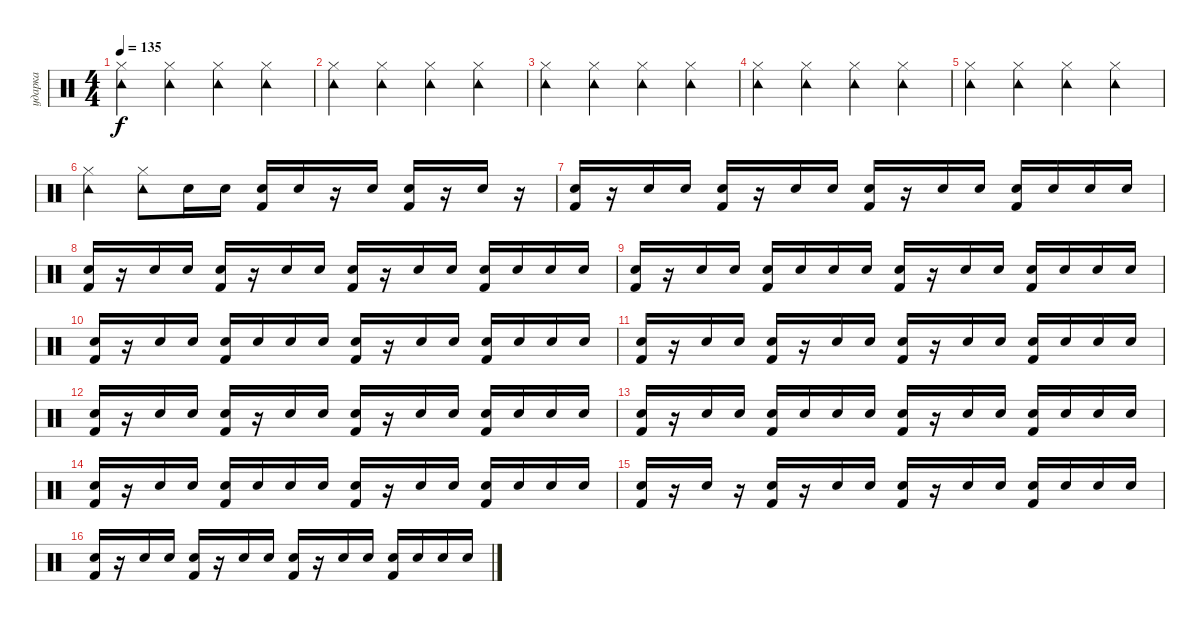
\track ("ударка" "ударка") {instrument percussion}
\staff {score}
\articulation defaults
\ts (4 4)
\tempo 135
\clef neutral
\ks c
("Hi-Hat (closed)" "Tambourine (hit)").4{dy f} ("Hi-Hat (closed)" "Tambourine (hit)").4 ("Hi-Hat (closed)" "Tambourine (hit)").4 ("Hi-Hat (closed)" "Tambourine (hit)").4 |
("Hi-Hat (closed)" "Tambourine (hit)").4 ("Hi-Hat (closed)" "Tambourine (hit)").4 ("Hi-Hat (closed)" "Tambourine (hit)").4 ("Hi-Hat (closed)" "Tambourine (hit)").4 |
("Hi-Hat (closed)" "Tambourine (hit)").4 ("Hi-Hat (closed)" "Tambourine (hit)").4 ("Hi-Hat (closed)" "Tambourine (hit)").4 ("Hi-Hat (closed)" "Tambourine (hit)").4 |
("Hi-Hat (closed)" "Tambourine (hit)").4 ("Hi-Hat (closed)" "Tambourine (hit)").4 ("Hi-Hat (closed)" "Tambourine (hit)").4 ("Hi-Hat (closed)" "Tambourine (hit)").4 |
("Hi-Hat (closed)" "Tambourine (hit)").4 ("Hi-Hat (closed)" "Tambourine (hit)").4 ("Hi-Hat (closed)" "Tambourine (hit)").4 ("Hi-Hat (closed)" "Tambourine (hit)").4 |
("Hi-Hat (closed)" "Tambourine (hit)").4 ("Hi-Hat (closed)" "Tambourine (hit)").8 "Snare (hit) 2".16 "Snare (hit) 2".16 ("Snare (hit) 2" "Kick (hit) 2").16 "Snare (hit) 2".16 r.16 "Snare (hit) 2".16 ("Snare (hit) 2" "Kick (hit) 2").16 r.16 "Snare (hit) 2".16 r.16 |
("Snare (hit) 2" "Kick (hit) 2").16 r.16 "Snare (hit) 2".16 "Snare (hit) 2".16 ("Snare (hit) 2" "Kick (hit) 2").16 r.16 "Snare (hit) 2".16 "Snare (hit) 2".16 ("Snare (hit) 2" "Kick (hit) 2").16 r.16 "Snare (hit) 2".16 "Snare (hit) 2".16 ("Snare (hit) 2" "Kick (hit) 2").16 "Snare (hit) 2".16 "Snare (hit) 2".16 "Snare (hit) 2".16 |
("Snare (hit) 2" "Kick (hit) 2").16 r.16 "Snare (hit) 2".16 "Snare (hit) 2".16 ("Snare (hit) 2" "Kick (hit) 2").16 r.16 "Snare (hit) 2".16 "Snare (hit) 2".16 ("Snare (hit) 2" "Kick (hit) 2").16 r.16 "Snare (hit) 2".16 "Snare (hit) 2".16 ("Snare (hit) 2" "Kick (hit) 2").16 "Snare (hit) 2".16 "Snare (hit) 2".16 "Snare (hit) 2".16 |
("Snare (hit) 2" "Kick (hit) 2").16 r.16 "Snare (hit) 2".16 "Snare (hit) 2".16 ("Snare (hit) 2" "Kick (hit) 2").16 "Snare (hit) 2".16 "Snare (hit) 2".16 "Snare (hit) 2".16 ("Snare (hit) 2" "Kick (hit) 2").16 r.16 "Snare (hit) 2".16 "Snare (hit) 2".16 ("Snare (hit) 2" "Kick (hit) 2").16 "Snare (hit) 2".16 "Snare (hit) 2".16 "Snare (hit) 2".16 |
("Snare (hit) 2" "Kick (hit) 2").16 r.16 "Snare (hit) 2".16 "Snare (hit) 2".16 ("Snare (hit) 2" "Kick (hit) 2").16 "Snare (hit) 2".16 "Snare (hit) 2".16 "Snare (hit) 2".16 ("Snare (hit) 2" "Kick (hit) 2").16 r.16 "Snare (hit) 2".16 "Snare (hit) 2".16 ("Snare (hit) 2" "Kick (hit) 2").16 "Snare (hit) 2".16 "Snare (hit) 2".16 "Snare (hit) 2".16 |
("Snare (hit) 2" "Kick (hit) 2").16 r.16 "Snare (hit) 2".16 "Snare (hit) 2".16 ("Snare (hit) 2" "Kick (hit) 2").16 r.16 "Snare (hit) 2".16 "Snare (hit) 2".16 ("Snare (hit) 2" "Kick (hit) 2").16 r.16 "Snare (hit) 2".16 "Snare (hit) 2".16 ("Snare (hit) 2" "Kick (hit) 2").16 "Snare (hit) 2".16 "Snare (hit) 2".16 "Snare (hit) 2".16 |
("Snare (hit) 2" "Kick (hit) 2").16 r.16 "Snare (hit) 2".16 "Snare (hit) 2".16 ("Snare (hit) 2" "Kick (hit) 2").16 r.16 "Snare (hit) 2".16 "Snare (hit) 2".16 ("Snare (hit) 2" "Kick (hit) 2").16 r.16 "Snare (hit) 2".16 "Snare (hit) 2".16 ("Snare (hit) 2" "Kick (hit) 2").16 "Snare (hit) 2".16 "Snare (hit) 2".16 "Snare (hit) 2".16 |
("Snare (hit) 2" "Kick (hit) 2").16 r.16 "Snare (hit) 2".16 "Snare (hit) 2".16 ("Snare (hit) 2" "Kick (hit) 2").16 "Snare (hit) 2".16 "Snare (hit) 2".16 "Snare (hit) 2".16 ("Snare (hit) 2" "Kick (hit) 2").16 r.16 "Snare (hit) 2".16 "Snare (hit) 2".16 ("Snare (hit) 2" "Kick (hit) 2").16 "Snare (hit) 2".16 "Snare (hit) 2".16 "Snare (hit) 2".16 |
("Snare (hit) 2" "Kick (hit) 2").16 r.16 "Snare (hit) 2".16 "Snare (hit) 2".16 ("Snare (hit) 2" "Kick (hit) 2").16 "Snare (hit) 2".16 "Snare (hit) 2".16 "Snare (hit) 2".16 ("Snare (hit) 2" "Kick (hit) 2").16 r.16 "Snare (hit) 2".16 "Snare (hit) 2".16 ("Snare (hit) 2" "Kick (hit) 2").16 "Snare (hit) 2".16 "Snare (hit) 2".16 "Snare (hit) 2".16 |
("Snare (hit) 2" "Kick (hit) 2").16 r.16 "Snare (hit) 2".16 r.16 ("Snare (hit) 2" "Kick (hit) 2").16 r.16 "Snare (hit) 2".16 "Snare (hit) 2".16 ("Snare (hit) 2" "Kick (hit) 2").16 r.16 "Snare (hit) 2".16 "Snare (hit) 2".16 ("Snare (hit) 2" "Kick (hit) 2").16 "Snare (hit) 2".16 "Snare (hit) 2".16 "Snare (hit) 2".16 |
("Snare (hit) 2" "Kick (hit) 2").16 r.16 "Snare (hit) 2".16 "Snare (hit) 2".16 ("Snare (hit) 2" "Kick (hit) 2").16 r.16 "Snare (hit) 2".16 "Snare (hit) 2".16 ("Snare (hit) 2" "Kick (hit) 2").16 r.16 "Snare (hit) 2".16 "Snare (hit) 2".16 ("Snare (hit) 2" "Kick (hit) 2").16 "Snare (hit) 2".16 "Snare (hit) 2".16 "Snare (hit) 2".16
